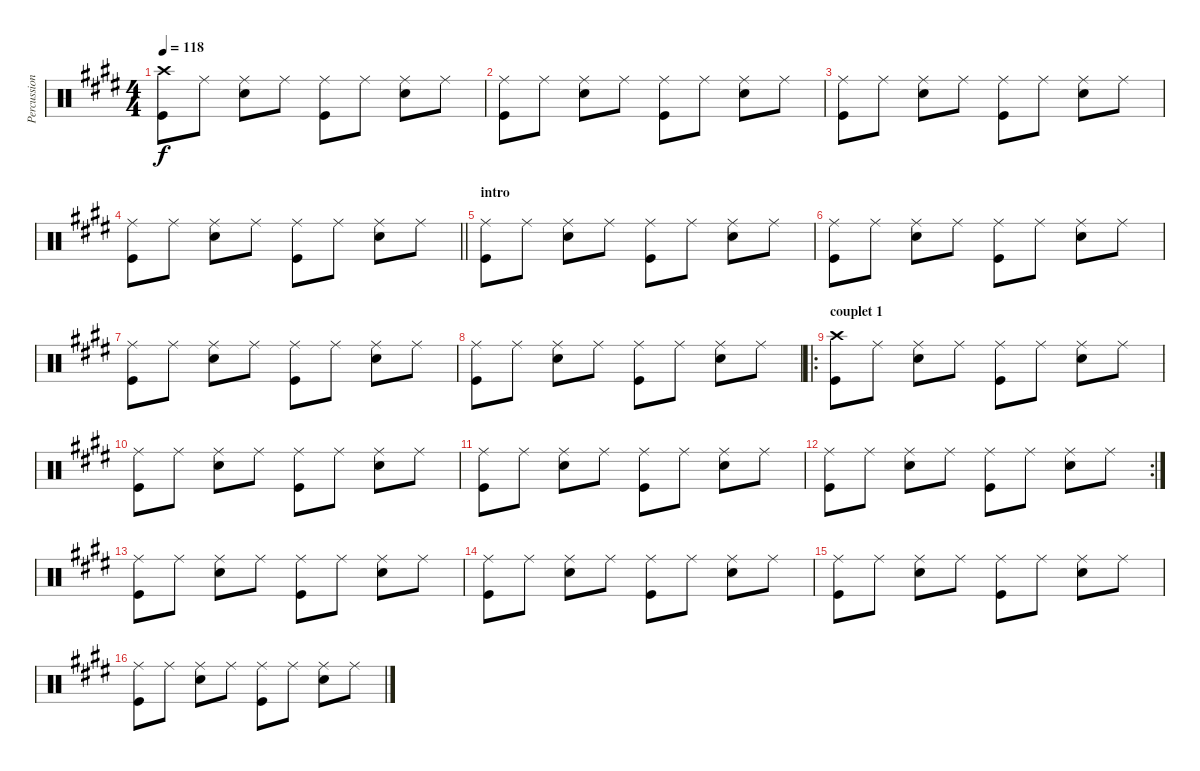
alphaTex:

\track ("Percussions" "Percussion") {instrument percussion}
\staff {score}
\articulation defaults
\ts (4 4)
\tempo 118
\clef neutral
\ks e
("Crash high (hit)" "Kick (hit)").8{dy f} "Ride (middle)".8 ("Ride (middle)" "Electric Snare (hit)").8 "Ride (middle)".8 ("Ride (middle)" "Kick (hit)").8 "Ride (middle)".8 ("Ride (middle)" "Electric Snare (hit)").8 "Ride (middle)".8 |
("Ride (middle)" "Kick (hit)").8 "Ride (middle)".8 ("Ride (middle)" "Electric Snare (hit)").8 "Ride (middle)".8 ("Ride (middle)" "Kick (hit)").8 "Ride (middle)".8 ("Ride (middle)" "Electric Snare (hit)").8 "Ride (middle)".8 |
("Ride (middle)" "Kick (hit)").8 "Ride (middle)".8 ("Ride (middle)" "Electric Snare (hit)").8 "Ride (middle)".8 ("Ride (middle)" "Kick (hit)").8 "Ride (middle)".8 ("Ride (middle)" "Electric Snare (hit)").8 "Ride (middle)".8 |
\barLineRight lightlight
("Ride (middle)" "Kick (hit)").8 "Ride (middle)".8 ("Ride (middle)" "Electric Snare (hit)").8 "Ride (middle)".8 ("Ride (middle)" "Kick (hit)").8 "Ride (middle)".8 ("Ride (middle)" "Electric Snare (hit)").8 "Ride (middle)".8 |
\section ("" "intro")
("Ride (middle)" "Kick (hit)").8 "Ride (middle)".8 ("Ride (middle)" "Electric Snare (hit)").8 "Ride (middle)".8 ("Ride (middle)" "Kick (hit)").8 "Ride (middle)".8 ("Ride (middle)" "Electric Snare (hit)").8 "Ride (middle)".8 |
("Ride (middle)" "Kick (hit)").8 "Ride (middle)".8 ("Ride (middle)" "Electric Snare (hit)").8 "Ride (middle)".8 ("Ride (middle)" "Kick (hit)").8 "Ride (middle)".8 ("Ride (middle)" "Electric Snare (hit)").8 "Ride (middle)".8 |
("Ride (middle)" "Kick (hit)").8 "Ride (middle)".8 ("Ride (middle)" "Electric Snare (hit)").8 "Ride (middle)".8 ("Ride (middle)" "Kick (hit)").8 "Ride (middle)".8 ("Ride (middle)" "Electric Snare (hit)").8 "Ride (middle)".8 |
("Ride (middle)" "Kick (hit)").8 "Ride (middle)".8 ("Ride (middle)" "Electric Snare (hit)").8 "Ride (middle)".8 ("Ride (middle)" "Kick (hit)").8 "Ride (middle)".8 ("Ride (middle)" "Electric Snare (hit)").8 "Ride (middle)".8 |
\ro
\section ("" "couplet 1")
("Crash high (hit)" "Kick (hit)").8 "Ride (middle)".8 ("Ride (middle)" "Electric Snare (hit)").8 "Ride (middle)".8 ("Ride (middle)" "Kick (hit)").8 "Ride (middle)".8 ("Ride (middle)" "Electric Snare (hit)").8 "Ride (middle)".8 |
("Ride (middle)" "Kick (hit)").8 "Ride (middle)".8 ("Ride (middle)" "Electric Snare (hit)").8 "Ride (middle)".8 ("Ride (middle)" "Kick (hit)").8 "Ride (middle)".8 ("Ride (middle)" "Electric Snare (hit)").8 "Ride (middle)".8 |
("Ride (middle)" "Kick (hit)").8 "Ride (middle)".8 ("Ride (middle)" "Electric Snare (hit)").8 "Ride (middle)".8 ("Ride (middle)" "Kick (hit)").8 "Ride (middle)".8 ("Ride (middle)" "Electric Snare (hit)").8 "Ride (middle)".8 |
\rc 2
("Ride (middle)" "Kick (hit)").8 "Ride (middle)".8 ("Ride (middle)" "Electric Snare (hit)").8 "Ride (middle)".8 ("Ride (middle)" "Kick (hit)").8 "Ride (middle)".8 ("Ride (middle)" "Electric Snare (hit)").8 "Ride (middle)".8 |
("Ride (middle)" "Kick (hit)").8 "Ride (middle)".8 ("Ride (middle)" "Electric Snare (hit)").8 "Ride (middle)".8 ("Ride (middle)" "Kick (hit)").8 "Ride (middle)".8 ("Ride (middle)" "Electric Snare (hit)").8 "Ride (middle)".8 |
("Ride (middle)" "Kick (hit)").8 "Ride (middle)".8 ("Ride (middle)" "Electric Snare (hit)").8 "Ride (middle)".8 ("Ride (middle)" "Kick (hit)").8 "Ride (middle)".8 ("Ride (middle)" "Electric Snare (hit)").8 "Ride (middle)".8 |
("Ride (middle)" "Kick (hit)").8 "Ride (middle)".8 ("Ride (middle)" "Electric Snare (hit)").8 "Ride (middle)".8 ("Ride (middle)" "Kick (hit)").8 "Ride (middle)".8 ("Ride (middle)" "Electric Snare (hit)").8 "Ride (middle)".8 |
("Ride (middle)" "Kick (hit)").8 "Ride (middle)".8 ("Ride (middle)" "Electric Snare (hit)").8 "Ride (middle)".8 ("Ride (middle)" "Kick (hit)").8 "Ride (middle)".8 ("Ride (middle)" "Electric Snare (hit)").8 "Ride (middle)".8
